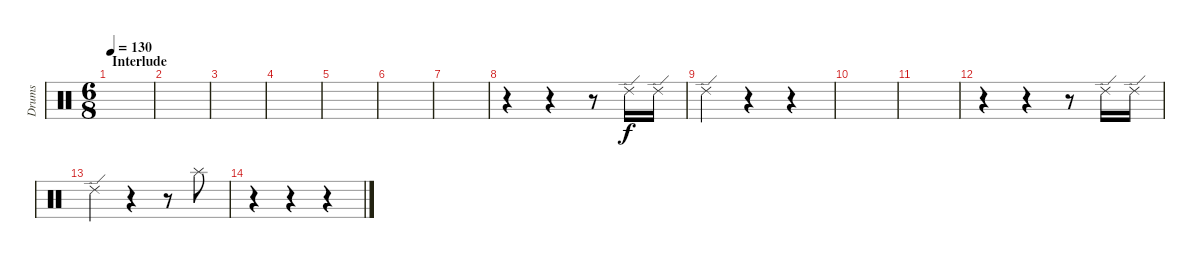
\track ("Drums" "Drums") {instrument percussion}
\staff {score}
\articulation defaults
\ts (6 8)
\section ("" "Interlude")
\tempo 130
\clef neutral
\ks c
|
|
|
|
|
|
|
r.4{balance 8} r.4 r.8 "Ride (edge) 2".16{dy f} "Ride (edge) 2".16 |
"Ride (edge) 2".4 r.4 r.4 |
|
|
r.4 r.4 r.8 "Ride (edge) 2".16 "Ride (edge) 2".16 |
"Ride (edge) 2".4 r.4 r.8 "Splash (hit)".8 |
r.4 r.4 r.4
